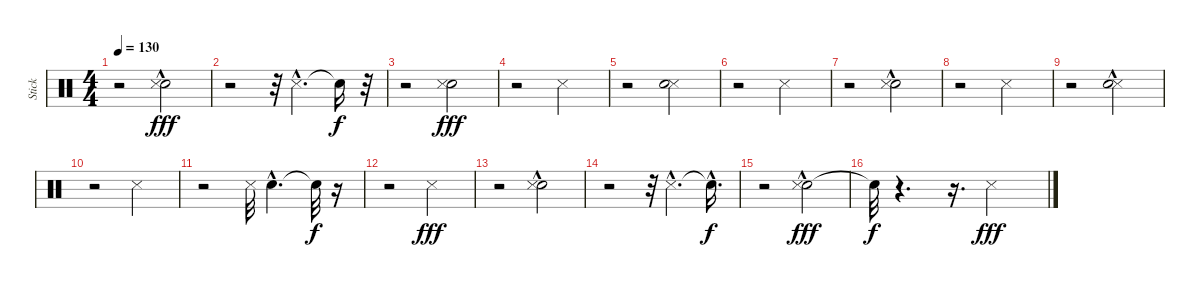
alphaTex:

\track ("Stick" "Stick") {instrument percussion}
\staff {score}
\articulation defaults
\ts (4 4)
\tempo 130
\clef neutral
\ks c
r.2{dy f} ("Snare (hit) 2"{hac} "Snare (side stick) 3").2{dy fff} |
r.2 r.32 "Snare (side stick) 3"{hac}.4{d} "Snare (hit)"{t}.16{dy f} r.32 |
r.2 ("Snare (hit) 2" "Snare (side stick) 3").2{dy fff} |
r.2 "Snare (side stick) 3".2 |
r.2 ("Snare (side stick) 3" "Snare (hit) 2").2 |
r.2 "Snare (side stick) 3".2 |
r.2 ("Snare (hit) 2"{hac} "Snare (side stick) 3").2 |
r.2 "Snare (side stick) 3".2 |
r.2 ("Snare (side stick) 3" "Snare (hit) 2"{hac}).2 |
r.2 "Snare (side stick) 3".2 |
r.2 "Snare (side stick) 3".32 "Snare (hit) 2"{hac}.4{d} "Snare (hit)"{t}.32{dy f} r.16 |
r.2 "Snare (side stick) 3".2{dy fff} |
r.2 ("Snare (hit) 2"{hac} "Snare (side stick) 3").2 |
r.2 r.32 "Snare (side stick) 3"{hac}.4{d} "Snare (hit)"{hac t}.16{d dy f} |
r.2 ("Snare (hit) 2"{hac} "Snare (side stick) 3").2{dy fff} |
"Snare (hit)"{t}.32{dy f} r.4{d} r.16{d} "Snare (side stick) 3".2{dy fff}
